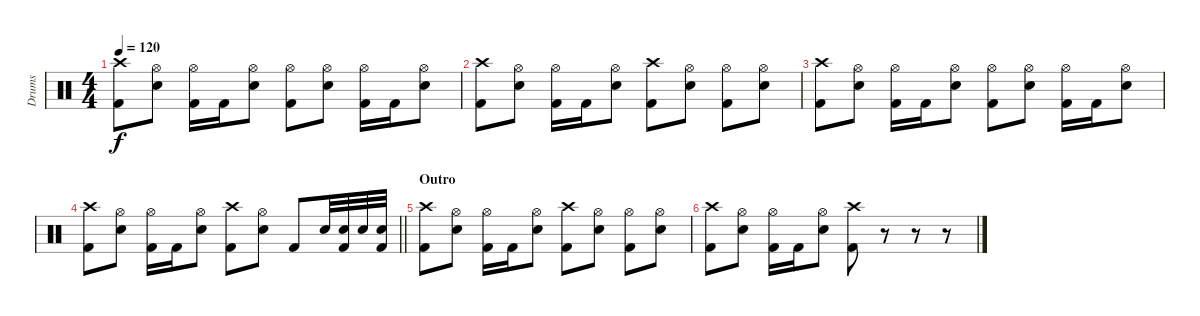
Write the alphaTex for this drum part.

\track ("Drums" "Drums") {instrument percussion}
\staff {score}
\articulation defaults
\ts (4 4)
\tempo 120
\clef neutral
\ks c
("Crash high (hit)" "Kick (hit) 2").8{dy f} ("Hi-Hat (open)" "Electric Snare (hit)").8 ("Hi-Hat (open)" "Kick (hit) 2").16 "Kick (hit) 2".16 ("Hi-Hat (open)" "Electric Snare (hit)").8 ("Hi-Hat (open)" "Kick (hit) 2").8 ("Hi-Hat (open)" "Electric Snare (hit)").8 ("Hi-Hat (open)" "Kick (hit) 2").16 "Kick (hit) 2".16 ("Hi-Hat (open)" "Electric Snare (hit)").8 |
("Crash high (hit)" "Kick (hit) 2").8 ("Hi-Hat (open)" "Electric Snare (hit)").8 ("Hi-Hat (open)" "Kick (hit) 2").16 "Kick (hit) 2".16 ("Hi-Hat (open)" "Electric Snare (hit)").8 ("Crash high (hit)" "Kick (hit) 2").8 ("Hi-Hat (open)" "Electric Snare (hit)").8 ("Hi-Hat (open)" "Kick (hit) 2").8 ("Hi-Hat (open)" "Electric Snare (hit)").8 |
("Crash high (hit)" "Kick (hit) 2").8 ("Hi-Hat (open)" "Electric Snare (hit)").8 ("Hi-Hat (open)" "Kick (hit) 2").16 "Kick (hit) 2".16 ("Hi-Hat (open)" "Electric Snare (hit)").8 ("Hi-Hat (open)" "Kick (hit) 2").8 ("Hi-Hat (open)" "Electric Snare (hit)").8 ("Hi-Hat (open)" "Kick (hit) 2").16 "Kick (hit) 2".16 ("Hi-Hat (open)" "Electric Snare (hit)").8 |
\barLineRight lightlight
("Crash high (hit)" "Kick (hit) 2").8 ("Hi-Hat (open)" "Electric Snare (hit)").8 ("Hi-Hat (open)" "Kick (hit) 2").16 "Kick (hit) 2".16 ("Hi-Hat (open)" "Electric Snare (hit)").8 ("Crash high (hit)" "Kick (hit) 2").8 ("Hi-Hat (open)" "Electric Snare (hit)").8 "Kick (hit) 2".8 "Electric Snare (hit)".32 ("Electric Snare (hit)" "Kick (hit) 2").32 "Electric Snare (hit)".32 ("Electric Snare (hit)" "Kick (hit) 2").32 |
\section ("" "Outro")
("Crash high (hit)" "Kick (hit) 2").8 ("Hi-Hat (open)" "Electric Snare (hit)").8 ("Hi-Hat (open)" "Kick (hit) 2").16 "Kick (hit) 2".16 ("Hi-Hat (open)" "Electric Snare (hit)").8 ("Crash high (hit)" "Kick (hit) 2").8 ("Hi-Hat (open)" "Electric Snare (hit)").8 ("Hi-Hat (open)" "Kick (hit) 2").8 ("Hi-Hat (open)" "Electric Snare (hit)").8 |
("Crash high (hit)" "Kick (hit) 2").8 ("Hi-Hat (open)" "Electric Snare (hit)").8 ("Hi-Hat (open)" "Kick (hit) 2").16 "Kick (hit) 2".16 ("Hi-Hat (open)" "Electric Snare (hit)").8 ("Crash high (hit)" "Kick (hit) 2").8 r.8 r.8 r.8
